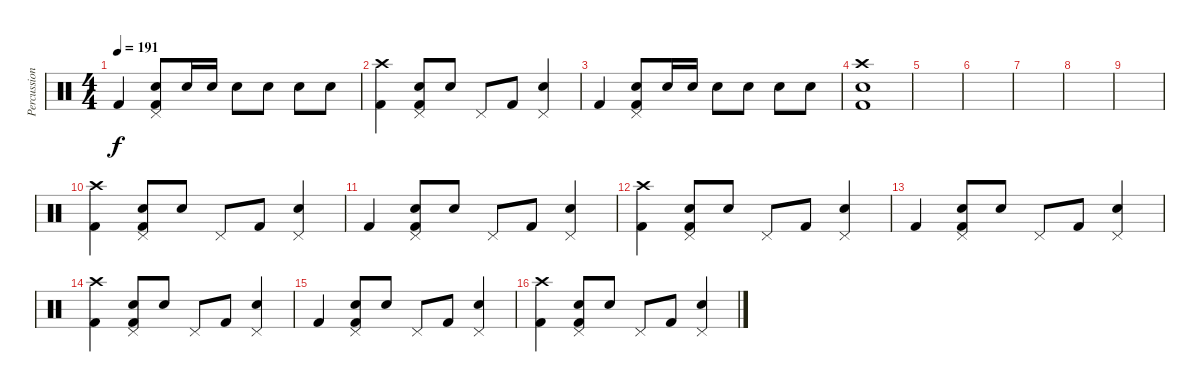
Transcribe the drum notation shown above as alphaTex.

\track ("Percussion" "Percussion") {instrument percussion}
\staff {score}
\articulation defaults
\ts (4 4)
\tempo 191
\clef neutral
\ks c "Kick (hit) 2".4{dy f}
("Pedal Hi-Hat (hit)" "Snare (hit) 2" "Kick (hit) 2").8 "Snare (hit) 2".16 "Snare (hit) 2".16 "Snare (hit) 2".8 "Snare (hit) 2".8 "Snare (hit) 2".8 "Snare (hit) 2".8 |
("Crash high (hit)" "Kick (hit) 2").4 ("Pedal Hi-Hat (hit)" "Snare (hit) 2" "Kick (hit) 2").8 "Snare (hit) 2".8 "Pedal Hi-Hat (hit)".8 "Kick (hit) 2".8 ("Pedal Hi-Hat (hit)" "Snare (hit) 2").4 |
"Kick (hit) 2".4 ("Pedal Hi-Hat (hit)" "Snare (hit) 2" "Kick (hit) 2").8 "Snare (hit) 2".16 "Snare (hit) 2".16 "Snare (hit) 2".8 "Snare (hit) 2".8 "Snare (hit) 2".8 "Snare (hit) 2".8 |
("Crash high (hit)" "Snare (hit) 2" "Kick (hit) 2").1 |
|
|
|
|
|
("Crash high (hit)" "Kick (hit) 2").4 ("Pedal Hi-Hat (hit)" "Snare (hit) 2" "Kick (hit) 2").8 "Snare (hit) 2".8 "Pedal Hi-Hat (hit)".8 "Kick (hit) 2".8 ("Pedal Hi-Hat (hit)" "Snare (hit) 2").4 |
"Kick (hit) 2".4 ("Pedal Hi-Hat (hit)" "Snare (hit) 2" "Kick (hit) 2").8 "Snare (hit) 2".8 "Pedal Hi-Hat (hit)".8 "Kick (hit) 2".8 ("Pedal Hi-Hat (hit)" "Snare (hit) 2").4 |
("Crash high (hit)" "Kick (hit) 2").4 ("Pedal Hi-Hat (hit)" "Snare (hit) 2" "Kick (hit) 2").8 "Snare (hit) 2".8 "Pedal Hi-Hat (hit)".8 "Kick (hit) 2".8 ("Pedal Hi-Hat (hit)" "Snare (hit) 2").4 |
"Kick (hit) 2".4 ("Pedal Hi-Hat (hit)" "Snare (hit) 2" "Kick (hit) 2").8 "Snare (hit) 2".8 "Pedal Hi-Hat (hit)".8 "Kick (hit) 2".8 ("Pedal Hi-Hat (hit)" "Snare (hit) 2").4 |
("Crash high (hit)" "Kick (hit) 2").4 ("Pedal Hi-Hat (hit)" "Snare (hit) 2" "Kick (hit) 2").8 "Snare (hit) 2".8 "Pedal Hi-Hat (hit)".8 "Kick (hit) 2".8 ("Pedal Hi-Hat (hit)" "Snare (hit) 2").4 |
"Kick (hit) 2".4 ("Pedal Hi-Hat (hit)" "Snare (hit) 2" "Kick (hit) 2").8 "Snare (hit) 2".8 "Pedal Hi-Hat (hit)".8 "Kick (hit) 2".8 ("Pedal Hi-Hat (hit)" "Snare (hit) 2").4 |
("Crash high (hit)" "Kick (hit) 2").4 ("Pedal Hi-Hat (hit)" "Snare (hit) 2" "Kick (hit) 2").8 "Snare (hit) 2".8 "Pedal Hi-Hat (hit)".8 "Kick (hit) 2".8 ("Pedal Hi-Hat (hit)" "Snare (hit) 2").4
